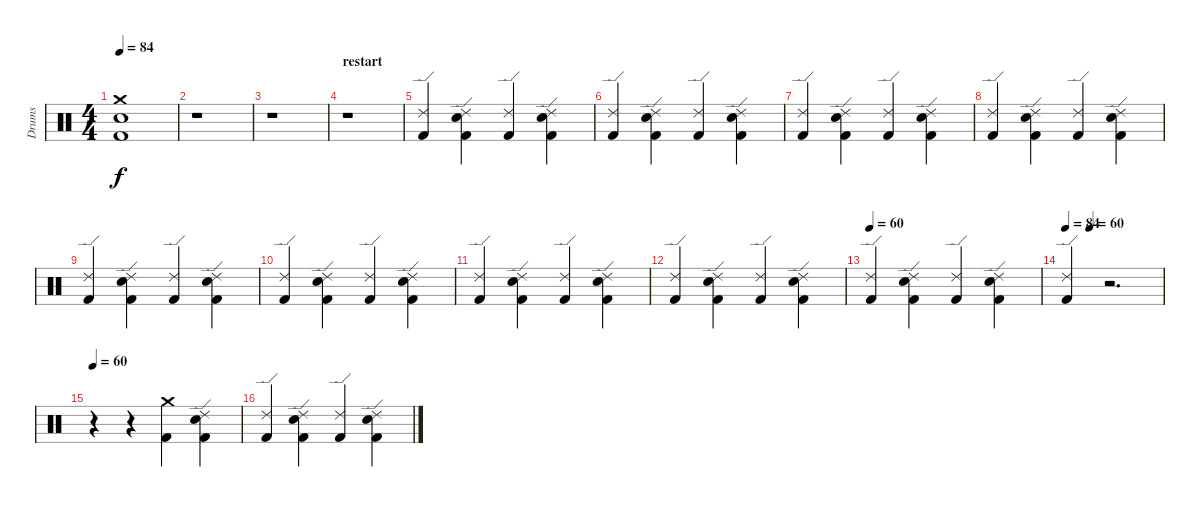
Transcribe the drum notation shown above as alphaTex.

\track ("Drums" "Drums") {instrument percussion}
\staff {score}
\articulation defaults
\ts (4 4)
\tempo 84
\clef neutral
\ks c
("Crash medium (hit)" "Electric Snare (hit)" "Kick (hit) 2").1{dy f} |
r.1 |
r.1 |
\section ("" "restart")
r.1 |
("Ride (edge) 2" "Kick (hit) 2").4 ("Ride (edge) 2" "Electric Snare (hit)" "Kick (hit) 2").4 ("Ride (edge) 2" "Kick (hit) 2").4 ("Ride (edge) 2" "Electric Snare (hit)" "Kick (hit) 2").4 |
("Ride (edge) 2" "Kick (hit) 2").4 ("Ride (edge) 2" "Electric Snare (hit)" "Kick (hit) 2").4 ("Ride (edge) 2" "Kick (hit) 2").4 ("Ride (edge) 2" "Electric Snare (hit)" "Kick (hit) 2").4 |
("Ride (edge) 2" "Kick (hit) 2").4 ("Ride (edge) 2" "Electric Snare (hit)" "Kick (hit) 2").4 ("Ride (edge) 2" "Kick (hit) 2").4 ("Ride (edge) 2" "Electric Snare (hit)" "Kick (hit) 2").4 |
("Ride (edge) 2" "Kick (hit) 2").4 ("Ride (edge) 2" "Electric Snare (hit)" "Kick (hit) 2").4 ("Ride (edge) 2" "Kick (hit) 2").4 ("Ride (edge) 2" "Electric Snare (hit)" "Kick (hit) 2").4 |
("Ride (edge) 2" "Kick (hit) 2").4 ("Ride (edge) 2" "Electric Snare (hit)" "Kick (hit) 2").4 ("Ride (edge) 2" "Kick (hit) 2").4 ("Ride (edge) 2" "Electric Snare (hit)" "Kick (hit) 2").4 |
("Ride (edge) 2" "Kick (hit) 2").4 ("Ride (edge) 2" "Electric Snare (hit)" "Kick (hit) 2").4 ("Ride (edge) 2" "Kick (hit) 2").4 ("Ride (edge) 2" "Electric Snare (hit)" "Kick (hit) 2").4 |
("Ride (edge) 2" "Kick (hit) 2").4 ("Ride (edge) 2" "Electric Snare (hit)" "Kick (hit) 2").4 ("Ride (edge) 2" "Kick (hit) 2").4 ("Ride (edge) 2" "Electric Snare (hit)" "Kick (hit) 2").4 |
("Ride (edge) 2" "Kick (hit) 2").4 ("Ride (edge) 2" "Electric Snare (hit)" "Kick (hit) 2").4 ("Ride (edge) 2" "Kick (hit) 2").4 ("Ride (edge) 2" "Electric Snare (hit)" "Kick (hit) 2").4 |
\tempo 60
("Ride (edge) 2" "Kick (hit) 2").4 ("Ride (edge) 2" "Electric Snare (hit)" "Kick (hit) 2").4 ("Ride (edge) 2" "Kick (hit) 2").4 ("Ride (edge) 2" "Electric Snare (hit)" "Kick (hit) 2").4 |
\tempo 84
\tempo (60 0.25)
("Ride (edge) 2" "Kick (hit) 2").4 r.2{d} |
\tempo 60
r.4 r.4 ("Crash medium (hit)" "Kick (hit) 2").4 ("Ride (edge) 2" "Electric Snare (hit)" "Kick (hit) 2").4 |
("Ride (edge) 2" "Kick (hit) 2").4 ("Ride (edge) 2" "Electric Snare (hit)" "Kick (hit) 2").4 ("Ride (edge) 2" "Kick (hit) 2").4 ("Ride (edge) 2" "Electric Snare (hit)" "Kick (hit) 2").4
